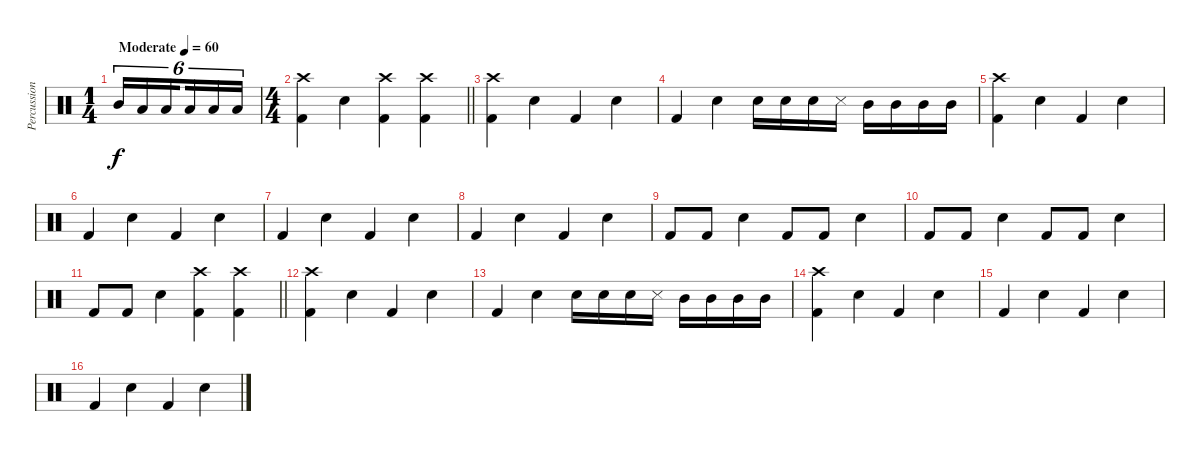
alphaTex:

\track ("Percussion" "Percussion") {instrument percussion}
\staff {score}
\articulation defaults
\ts (1 4)
\tempo (60 "Moderate")
\clef neutral
\ks c "Mid Tom (hit)".16{tu (6 4) dy f} "Low Floor Tom (hit)".16{tu (6 4)} "Low Floor Tom (hit)".16{tu (6 4) beam splitsecondary} "Low Floor Tom (hit)".16{tu (6 4)} "Low Floor Tom (hit)".16{tu (6 4)} "Low Floor Tom (hit)".16{tu (6 4)}
|
\ts (4 4)
\barLineRight lightlight
("Crash high (hit)" "Kick (hit) 2").4 "Snare (hit) 2".4 ("Crash high (hit)" "Kick (hit) 2").4 ("Crash high (hit)" "Kick (hit) 2").4 |
("Crash high (hit)" "Kick (hit) 2").4 "Snare (hit) 2".4 "Kick (hit) 2".4 "Snare (hit) 2".4 |
"Kick (hit) 2".4 "Snare (hit) 2".4 "Snare (hit) 2".16 "Snare (hit) 2".16 "Snare (hit) 2".16 "Snare (side stick) 3".16 "Mid Tom (hit)".16 "Mid Tom (hit)".16 "Mid Tom (hit)".16 "Mid Tom (hit)".16 |
("Crash high (hit)" "Kick (hit) 2").4 "Snare (hit) 2".4 "Kick (hit) 2".4 "Snare (hit) 2".4 |
"Kick (hit) 2".4 "Snare (hit) 2".4 "Kick (hit) 2".4 "Snare (hit) 2".4 |
"Kick (hit) 2".4 "Snare (hit) 2".4 "Kick (hit) 2".4 "Snare (hit) 2".4 |
"Kick (hit) 2".4 "Snare (hit) 2".4 "Kick (hit) 2".4 "Snare (hit) 2".4 |
"Kick (hit) 2".8 "Kick (hit) 2".8 "Snare (hit) 2".4 "Kick (hit) 2".8 "Kick (hit) 2".8 "Snare (hit) 2".4 |
"Kick (hit) 2".8 "Kick (hit) 2".8 "Snare (hit) 2".4 "Kick (hit) 2".8 "Kick (hit) 2".8 "Snare (hit) 2".4 |
\barLineRight lightlight "Kick (hit) 2".8 "Kick (hit) 2".8 "Snare (hit) 2".4
("Crash high (hit)" "Kick (hit) 2").4 ("Crash high (hit)" "Kick (hit) 2").4 |
("Crash high (hit)" "Kick (hit) 2").4 "Snare (hit) 2".4 "Kick (hit) 2".4 "Snare (hit) 2".4 |
"Kick (hit) 2".4 "Snare (hit) 2".4 "Snare (hit) 2".16 "Snare (hit) 2".16 "Snare (hit) 2".16 "Snare (side stick) 3".16 "Mid Tom (hit)".16 "Mid Tom (hit)".16 "Mid Tom (hit)".16 "Mid Tom (hit)".16 |
("Crash high (hit)" "Kick (hit) 2").4 "Snare (hit) 2".4 "Kick (hit) 2".4 "Snare (hit) 2".4 |
"Kick (hit) 2".4 "Snare (hit) 2".4 "Kick (hit) 2".4 "Snare (hit) 2".4 |
"Kick (hit) 2".4 "Snare (hit) 2".4 "Kick (hit) 2".4 "Snare (hit) 2".4
